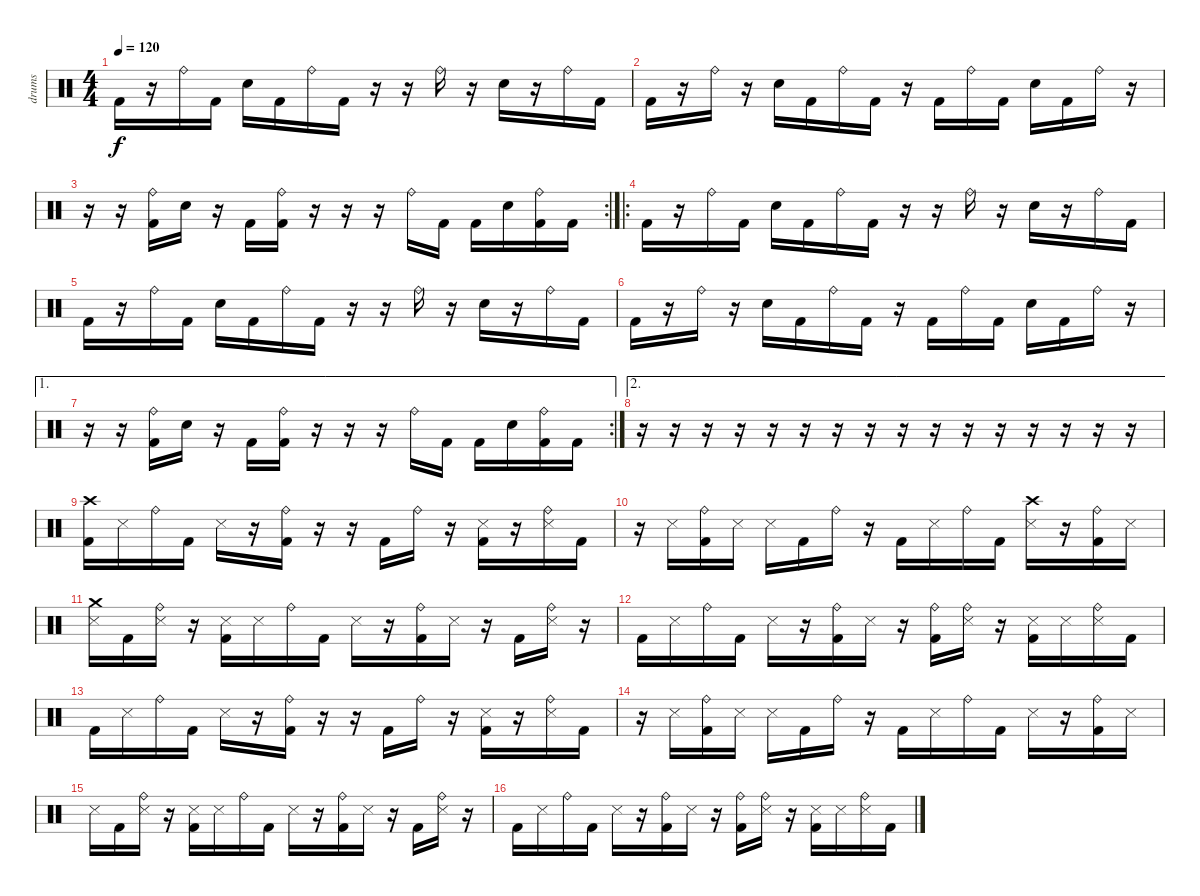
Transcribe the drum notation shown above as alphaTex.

\track ("drums" "drums") {instrument percussion}
\staff {score}
\articulation defaults
\ts (4 4)
\tempo 120
\clef neutral
\ks c "Kick (hit) 2".16{dy f}
r.16 "Ride (bell)".16 "Kick (hit) 2".16 "Snare (hit) 2".16 "Kick (hit) 2".16 "Ride (bell)".16 "Kick (hit) 2".16 r.16 r.16 "Ride (bell)".16 r.16 "Snare (hit) 2".16 r.16 "Ride (bell)".16 "Kick (hit) 2".16 |
"Kick (hit) 2".16 r.16 "Ride (bell)".16 r.16 "Snare (hit) 2".16 "Kick (hit) 2".16 "Ride (bell)".16 "Kick (hit) 2".16 r.16 "Kick (hit) 2".16 "Ride (bell)".16 "Kick (hit) 2".16 "Snare (hit) 2".16 "Kick (hit) 2".16 "Ride (bell)".16 r.16 |
\rc 2
r.16 r.16 ("Ride (bell)" "Kick (hit) 2").16 "Snare (hit) 2".16 r.16 "Kick (hit) 2".16 ("Ride (bell)" "Kick (hit) 2").16 r.16 r.16 r.16 "Ride (bell)".16 "Kick (hit) 2".16 "Kick (hit) 2".16 "Snare (hit) 2".16 ("Ride (bell)" "Kick (hit) 2").16 "Kick (hit) 2".16 |
\ro "Kick (hit) 2".16
r.16 "Ride (bell)".16 "Kick (hit) 2".16 "Snare (hit) 2".16 "Kick (hit) 2".16 "Ride (bell)".16 "Kick (hit) 2".16 r.16 r.16 "Ride (bell)".16 r.16 "Snare (hit) 2".16 r.16 "Ride (bell)".16 "Kick (hit) 2".16 |
"Kick (hit) 2".16 r.16 "Ride (bell)".16 "Kick (hit) 2".16 "Snare (hit) 2".16 "Kick (hit) 2".16 "Ride (bell)".16 "Kick (hit) 2".16 r.16 r.16 "Ride (bell)".16 r.16 "Snare (hit) 2".16 r.16 "Ride (bell)".16 "Kick (hit) 2".16 |
"Kick (hit) 2".16 r.16 "Ride (bell)".16 r.16 "Snare (hit) 2".16 "Kick (hit) 2".16 "Ride (bell)".16 "Kick (hit) 2".16 r.16 "Kick (hit) 2".16 "Ride (bell)".16 "Kick (hit) 2".16 "Snare (hit) 2".16 "Kick (hit) 2".16 "Ride (bell)".16 r.16 |
\ae 1
\rc 2
r.16 r.16 ("Ride (bell)" "Kick (hit) 2").16 "Snare (hit) 2".16 r.16 "Kick (hit) 2".16 ("Ride (bell)" "Kick (hit) 2").16 r.16 r.16 r.16 "Ride (bell)".16 "Kick (hit) 2".16 "Kick (hit) 2".16 "Snare (hit) 2".16 ("Ride (bell)" "Kick (hit) 2").16 "Kick (hit) 2".16 |
\ae 2
r.16 r.16 r.16 r.16 r.16 r.16 r.16 r.16 r.16 r.16 r.16 r.16 r.16 r.16 r.16 r.16 |
("Crash high (hit)" "Kick (hit) 2").16 "Snare (side stick) 3".16 "Ride (bell)".16 "Kick (hit) 2".16 "Snare (side stick) 3".16 r.16 ("Ride (bell)" "Kick (hit) 2").16 r.16 r.16 "Kick (hit) 2".16 "Ride (bell)".16 r.16 ("Snare (side stick) 3" "Kick (hit) 2").16 r.16 ("Ride (bell)" "Snare (side stick) 3").16 "Kick (hit) 2".16 |
r.16 "Snare (side stick) 3".16 ("Ride (bell)" "Kick (hit) 2").16 "Snare (side stick) 3".16 "Snare (side stick) 3".16 "Kick (hit) 2".16 "Ride (bell)".16 r.16 "Kick (hit) 2".16 "Snare (side stick) 3".16 "Ride (bell)".16 "Kick (hit) 2".16 ("Crash high (hit)" "Snare (side stick) 3").16 r.16 ("Ride (bell)" "Kick (hit) 2").16 "Snare (side stick) 3".16 |
("Crash medium (hit)" "Snare (side stick) 3").16 "Kick (hit) 2".16 ("Ride (bell)" "Snare (side stick) 3").16 r.16 ("Snare (side stick) 3" "Kick (hit) 2").16 "Snare (side stick) 3".16 "Ride (bell)".16 "Kick (hit) 2".16 "Snare (side stick) 3".16 r.16 ("Ride (bell)" "Kick (hit) 2").16 "Snare (side stick) 3".16 r.16 "Kick (hit) 2".16 ("Ride (bell)" "Snare (side stick) 3").16 r.16 |
"Kick (hit) 2".16 "Snare (side stick) 3".16 "Ride (bell)".16 "Kick (hit) 2".16 "Snare (side stick) 3".16 r.16 ("Ride (bell)" "Kick (hit) 2").16 "Snare (side stick) 3".16 r.16 ("Ride (bell)" "Kick (hit) 2").16 ("Ride (bell)" "Snare (side stick) 3").16 r.16 ("Snare (side stick) 3" "Kick (hit) 2").16 "Snare (side stick) 3".16 ("Ride (bell)" "Snare (side stick) 3").16 "Kick (hit) 2".16 |
"Kick (hit) 2".16 "Snare (side stick) 3".16 "Ride (bell)".16 "Kick (hit) 2".16 "Snare (side stick) 3".16 r.16 ("Ride (bell)" "Kick (hit) 2").16 r.16 r.16 "Kick (hit) 2".16 "Ride (bell)".16 r.16 ("Snare (side stick) 3" "Kick (hit) 2").16 r.16 ("Ride (bell)" "Snare (side stick) 3").16 "Kick (hit) 2".16 |
r.16 "Snare (side stick) 3".16 ("Ride (bell)" "Kick (hit) 2").16 "Snare (side stick) 3".16 "Snare (side stick) 3".16 "Kick (hit) 2".16 "Ride (bell)".16 r.16 "Kick (hit) 2".16 "Snare (side stick) 3".16 "Ride (bell)".16 "Kick (hit) 2".16 "Snare (side stick) 3".16 r.16 ("Ride (bell)" "Kick (hit) 2").16 "Snare (side stick) 3".16 |
"Snare (side stick) 3".16 "Kick (hit) 2".16 ("Ride (bell)" "Snare (side stick) 3").16 r.16 ("Snare (side stick) 3" "Kick (hit) 2").16 "Snare (side stick) 3".16 "Ride (bell)".16 "Kick (hit) 2".16 "Snare (side stick) 3".16 r.16 ("Ride (bell)" "Kick (hit) 2").16 "Snare (side stick) 3".16 r.16 "Kick (hit) 2".16 ("Ride (bell)" "Snare (side stick) 3").16 r.16 |
"Kick (hit) 2".16 "Snare (side stick) 3".16 "Ride (bell)".16 "Kick (hit) 2".16 "Snare (side stick) 3".16 r.16 ("Ride (bell)" "Kick (hit) 2").16 "Snare (side stick) 3".16 r.16 ("Ride (bell)" "Kick (hit) 2").16 ("Ride (bell)" "Snare (side stick) 3").16 r.16 ("Snare (side stick) 3" "Kick (hit) 2").16 "Snare (side stick) 3".16 ("Ride (bell)" "Snare (side stick) 3").16 "Kick (hit) 2".16
